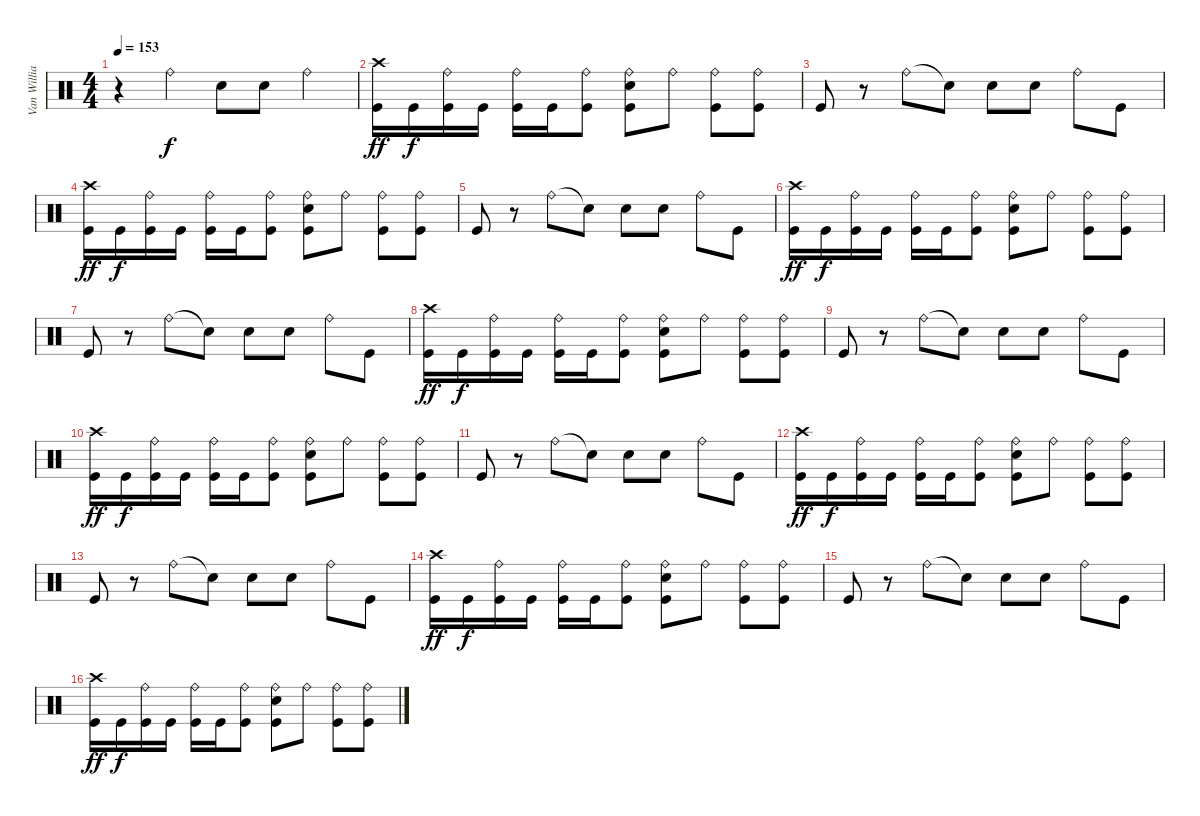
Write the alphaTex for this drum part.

\track ("Van Williams" "Van Willia") {instrument percussion}
\staff {score}
\articulation defaults
\ts (4 4)
\tempo 153
\clef neutral
\ks c
r.4{dy f} "Ride (bell)".4 "Electric Snare (hit)".8 "Electric Snare (hit)".8 "Ride (bell)".4 |
("Crash high (hit)" "Kick (hit)").16{dy ff} "Kick (hit)".16{dy f} ("Ride (bell)" "Kick (hit)").16 "Kick (hit)".16 ("Ride (bell)" "Kick (hit)").16 "Kick (hit)".16 ("Ride (bell)" "Kick (hit)").8 ("Ride (bell)" "Electric Snare (hit)" "Kick (hit)").8 "Ride (bell)".8 ("Ride (bell)" "Kick (hit)").8 ("Ride (bell)" "Kick (hit)").8 |
"Kick (hit)".8 r.8 "Ride (bell)".8 "Snare (hit)"{t}.8 "Electric Snare (hit)".8 "Electric Snare (hit)".8 "Ride (bell)".8 "Kick (hit)".8 |
("Crash high (hit)" "Kick (hit)").16{dy ff} "Kick (hit)".16{dy f} ("Ride (bell)" "Kick (hit)").16 "Kick (hit)".16 ("Ride (bell)" "Kick (hit)").16 "Kick (hit)".16 ("Ride (bell)" "Kick (hit)").8 ("Ride (bell)" "Electric Snare (hit)" "Kick (hit)").8 "Ride (bell)".8 ("Ride (bell)" "Kick (hit)").8 ("Ride (bell)" "Kick (hit)").8 |
"Kick (hit)".8 r.8 "Ride (bell)".8 "Snare (hit)"{t}.8 "Electric Snare (hit)".8 "Electric Snare (hit)".8 "Ride (bell)".8 "Kick (hit)".8 |
("Crash high (hit)" "Kick (hit)").16{dy ff} "Kick (hit)".16{dy f} ("Ride (bell)" "Kick (hit)").16 "Kick (hit)".16 ("Ride (bell)" "Kick (hit)").16 "Kick (hit)".16 ("Ride (bell)" "Kick (hit)").8 ("Ride (bell)" "Electric Snare (hit)" "Kick (hit)").8 "Ride (bell)".8 ("Ride (bell)" "Kick (hit)").8 ("Ride (bell)" "Kick (hit)").8 |
"Kick (hit)".8 r.8 "Ride (bell)".8 "Snare (hit)"{t}.8 "Electric Snare (hit)".8 "Electric Snare (hit)".8 "Ride (bell)".8 "Kick (hit)".8 |
("Crash high (hit)" "Kick (hit)").16{dy ff} "Kick (hit)".16{dy f} ("Ride (bell)" "Kick (hit)").16 "Kick (hit)".16 ("Ride (bell)" "Kick (hit)").16 "Kick (hit)".16 ("Ride (bell)" "Kick (hit)").8 ("Ride (bell)" "Electric Snare (hit)" "Kick (hit)").8 "Ride (bell)".8 ("Ride (bell)" "Kick (hit)").8 ("Ride (bell)" "Kick (hit)").8 |
"Kick (hit)".8 r.8 "Ride (bell)".8 "Snare (hit)"{t}.8 "Electric Snare (hit)".8 "Electric Snare (hit)".8 "Ride (bell)".8 "Kick (hit)".8 |
("Crash high (hit)" "Kick (hit)").16{dy ff} "Kick (hit)".16{dy f} ("Ride (bell)" "Kick (hit)").16 "Kick (hit)".16 ("Ride (bell)" "Kick (hit)").16 "Kick (hit)".16 ("Ride (bell)" "Kick (hit)").8 ("Ride (bell)" "Electric Snare (hit)" "Kick (hit)").8 "Ride (bell)".8 ("Ride (bell)" "Kick (hit)").8 ("Ride (bell)" "Kick (hit)").8 |
"Kick (hit)".8 r.8 "Ride (bell)".8 "Snare (hit)"{t}.8 "Electric Snare (hit)".8 "Electric Snare (hit)".8 "Ride (bell)".8 "Kick (hit)".8 |
("Crash high (hit)" "Kick (hit)").16{dy ff} "Kick (hit)".16{dy f} ("Ride (bell)" "Kick (hit)").16 "Kick (hit)".16 ("Ride (bell)" "Kick (hit)").16 "Kick (hit)".16 ("Ride (bell)" "Kick (hit)").8 ("Ride (bell)" "Electric Snare (hit)" "Kick (hit)").8 "Ride (bell)".8 ("Ride (bell)" "Kick (hit)").8 ("Ride (bell)" "Kick (hit)").8 |
"Kick (hit)".8 r.8 "Ride (bell)".8 "Snare (hit)"{t}.8 "Electric Snare (hit)".8 "Electric Snare (hit)".8 "Ride (bell)".8 "Kick (hit)".8 |
("Crash high (hit)" "Kick (hit)").16{dy ff} "Kick (hit)".16{dy f} ("Ride (bell)" "Kick (hit)").16 "Kick (hit)".16 ("Ride (bell)" "Kick (hit)").16 "Kick (hit)".16 ("Ride (bell)" "Kick (hit)").8 ("Ride (bell)" "Electric Snare (hit)" "Kick (hit)").8 "Ride (bell)".8 ("Ride (bell)" "Kick (hit)").8 ("Ride (bell)" "Kick (hit)").8 |
"Kick (hit)".8 r.8 "Ride (bell)".8 "Snare (hit)"{t}.8 "Electric Snare (hit)".8 "Electric Snare (hit)".8 "Ride (bell)".8 "Kick (hit)".8 |
("Crash high (hit)" "Kick (hit)").16{dy ff} "Kick (hit)".16{dy f} ("Ride (bell)" "Kick (hit)").16 "Kick (hit)".16 ("Ride (bell)" "Kick (hit)").16 "Kick (hit)".16 ("Ride (bell)" "Kick (hit)").8 ("Ride (bell)" "Electric Snare (hit)" "Kick (hit)").8 "Ride (bell)".8 ("Ride (bell)" "Kick (hit)").8 ("Ride (bell)" "Kick (hit)").8
